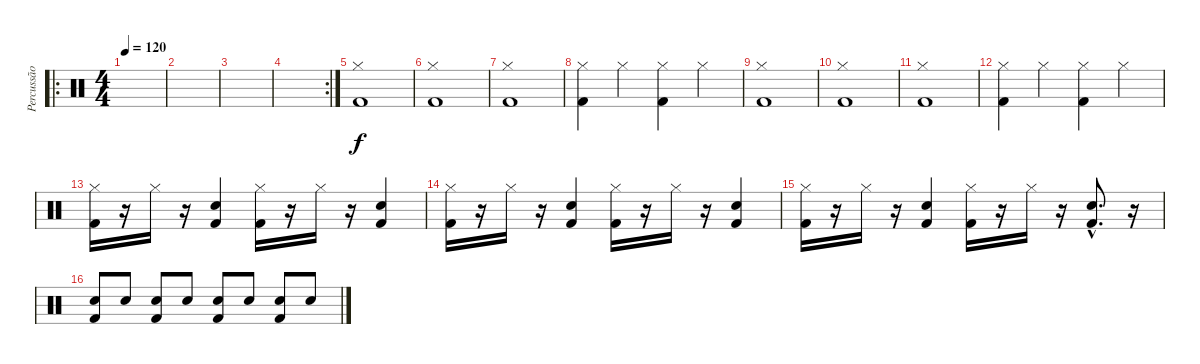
\track ("Percussão" "Percussão") {instrument percussion}
\staff {score}
\articulation defaults
\ro
\ts (4 4)
\tempo 120
\clef neutral
\ks c
|
|
|
\rc 2
|
("Hi-Hat (closed)" "Kick (hit) 2").1 |
("Hi-Hat (closed)" "Kick (hit) 2").1 |
("Hi-Hat (closed)" "Kick (hit) 2").1 |
("Hi-Hat (closed)" "Kick (hit) 2").4 "Hi-Hat (closed)".4 ("Hi-Hat (closed)" "Kick (hit) 2").4 "Hi-Hat (closed)".4 |
("Hi-Hat (closed)" "Kick (hit) 2").1 |
("Hi-Hat (closed)" "Kick (hit) 2").1 |
("Hi-Hat (closed)" "Kick (hit) 2").1 |
("Hi-Hat (closed)" "Kick (hit) 2").4 "Hi-Hat (closed)".4 ("Hi-Hat (closed)" "Kick (hit) 2").4 "Hi-Hat (closed)".4 |
("Hi-Hat (closed)" "Kick (hit) 2").16 r.16 "Hi-Hat (closed)".16 r.16 ("Electric Snare (hit)" "Kick (hit) 2").4 ("Hi-Hat (closed)" "Kick (hit) 2").16 r.16 "Hi-Hat (closed)".16 r.16 ("Electric Snare (hit)" "Kick (hit) 2").4 |
("Hi-Hat (closed)" "Kick (hit) 2").16 r.16 "Hi-Hat (closed)".16 r.16 ("Electric Snare (hit)" "Kick (hit) 2").4 ("Hi-Hat (closed)" "Kick (hit) 2").16 r.16 "Hi-Hat (closed)".16 r.16 ("Electric Snare (hit)" "Kick (hit) 2").4 |
("Hi-Hat (closed)" "Kick (hit) 2").16 r.16 "Hi-Hat (closed)".16 r.16 ("Electric Snare (hit)" "Kick (hit) 2").4 ("Hi-Hat (closed)" "Kick (hit) 2").16 r.16 "Hi-Hat (closed)".16 r.16 ("Electric Snare (hit)"{hac} "Kick (hit) 2"{hac}).8{d} r.16{volume 8} |
("Electric Snare (hit)" "Kick (hit) 2").8{volume 13} "Electric Snare (hit)".8 ("Electric Snare (hit)" "Kick (hit) 2").8 "Electric Snare (hit)".8 ("Electric Snare (hit)" "Kick (hit) 2").8 "Electric Snare (hit)".8 ("Electric Snare (hit)" "Kick (hit) 2").8 "Electric Snare (hit)".8
